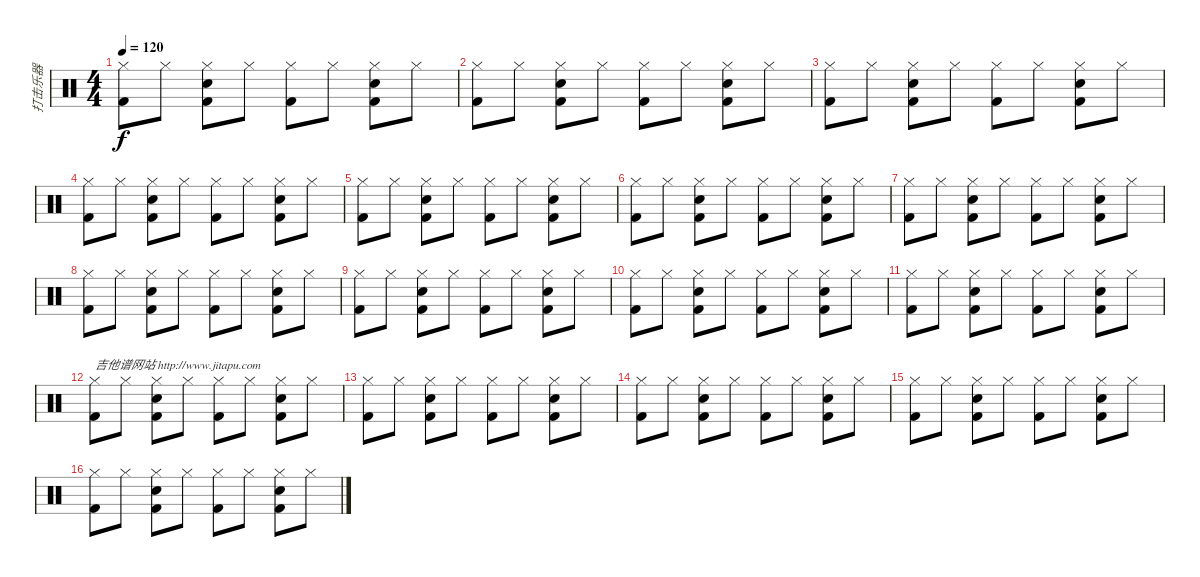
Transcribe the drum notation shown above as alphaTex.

\track ("打击乐器" "打击乐器") {instrument percussion}
\staff {score}
\articulation defaults
\ts (4 4)
\tempo 120
\clef neutral
\ks c
("Hi-Hat (closed)" "Kick (hit) 2").8{dy f} "Hi-Hat (closed)".8 ("Hi-Hat (closed)" "Snare (hit) 2" "Kick (hit) 2").8 "Hi-Hat (closed)".8 ("Hi-Hat (closed)" "Kick (hit) 2").8 "Hi-Hat (closed)".8 ("Hi-Hat (closed)" "Snare (hit) 2" "Kick (hit) 2").8 "Hi-Hat (closed)".8 |
("Hi-Hat (closed)" "Kick (hit) 2").8 "Hi-Hat (closed)".8 ("Hi-Hat (closed)" "Snare (hit) 2" "Kick (hit) 2").8 "Hi-Hat (closed)".8 ("Hi-Hat (closed)" "Kick (hit) 2").8 "Hi-Hat (closed)".8 ("Hi-Hat (closed)" "Snare (hit) 2" "Kick (hit) 2").8 "Hi-Hat (closed)".8 |
("Hi-Hat (closed)" "Kick (hit) 2").8 "Hi-Hat (closed)".8 ("Hi-Hat (closed)" "Snare (hit) 2" "Kick (hit) 2").8 "Hi-Hat (closed)".8 ("Hi-Hat (closed)" "Kick (hit) 2").8 "Hi-Hat (closed)".8 ("Hi-Hat (closed)" "Snare (hit) 2" "Kick (hit) 2").8 "Hi-Hat (closed)".8 |
("Hi-Hat (closed)" "Kick (hit) 2").8 "Hi-Hat (closed)".8 ("Hi-Hat (closed)" "Snare (hit) 2" "Kick (hit) 2").8 "Hi-Hat (closed)".8 ("Hi-Hat (closed)" "Kick (hit) 2").8 "Hi-Hat (closed)".8 ("Hi-Hat (closed)" "Snare (hit) 2" "Kick (hit) 2").8 "Hi-Hat (closed)".8 |
("Hi-Hat (closed)" "Kick (hit) 2").8 "Hi-Hat (closed)".8 ("Hi-Hat (closed)" "Snare (hit) 2" "Kick (hit) 2").8 "Hi-Hat (closed)".8 ("Hi-Hat (closed)" "Kick (hit) 2").8 "Hi-Hat (closed)".8 ("Hi-Hat (closed)" "Snare (hit) 2" "Kick (hit) 2").8 "Hi-Hat (closed)".8 |
("Hi-Hat (closed)" "Kick (hit) 2").8 "Hi-Hat (closed)".8 ("Hi-Hat (closed)" "Snare (hit) 2" "Kick (hit) 2").8 "Hi-Hat (closed)".8 ("Hi-Hat (closed)" "Kick (hit) 2").8 "Hi-Hat (closed)".8 ("Hi-Hat (closed)" "Snare (hit) 2" "Kick (hit) 2").8 "Hi-Hat (closed)".8 |
("Hi-Hat (closed)" "Kick (hit) 2").8 "Hi-Hat (closed)".8 ("Hi-Hat (closed)" "Snare (hit) 2" "Kick (hit) 2").8 "Hi-Hat (closed)".8 ("Hi-Hat (closed)" "Kick (hit) 2").8 "Hi-Hat (closed)".8 ("Hi-Hat (closed)" "Snare (hit) 2" "Kick (hit) 2").8 "Hi-Hat (closed)".8 |
("Hi-Hat (closed)" "Kick (hit) 2").8 "Hi-Hat (closed)".8 ("Hi-Hat (closed)" "Snare (hit) 2" "Kick (hit) 2").8 "Hi-Hat (closed)".8 ("Hi-Hat (closed)" "Kick (hit) 2").8 "Hi-Hat (closed)".8 ("Hi-Hat (closed)" "Snare (hit) 2" "Kick (hit) 2").8 "Hi-Hat (closed)".8 |
("Hi-Hat (closed)" "Kick (hit) 2").8 "Hi-Hat (closed)".8 ("Hi-Hat (closed)" "Snare (hit) 2" "Kick (hit) 2").8 "Hi-Hat (closed)".8 ("Hi-Hat (closed)" "Kick (hit) 2").8 "Hi-Hat (closed)".8 ("Hi-Hat (closed)" "Snare (hit) 2" "Kick (hit) 2").8 "Hi-Hat (closed)".8 |
("Hi-Hat (closed)" "Kick (hit) 2").8 "Hi-Hat (closed)".8 ("Hi-Hat (closed)" "Snare (hit) 2" "Kick (hit) 2").8 "Hi-Hat (closed)".8 ("Hi-Hat (closed)" "Kick (hit) 2").8 "Hi-Hat (closed)".8 ("Hi-Hat (closed)" "Snare (hit) 2" "Kick (hit) 2").8 "Hi-Hat (closed)".8 |
("Hi-Hat (closed)" "Kick (hit) 2").8 "Hi-Hat (closed)".8 ("Hi-Hat (closed)" "Snare (hit) 2" "Kick (hit) 2").8 "Hi-Hat (closed)".8 ("Hi-Hat (closed)" "Kick (hit) 2").8 "Hi-Hat (closed)".8 ("Hi-Hat (closed)" "Snare (hit) 2" "Kick (hit) 2").8 "Hi-Hat (closed)".8 |
("Hi-Hat (closed)" "Kick (hit) 2").8{txt "吉他谱网站 http://www.jitapu.com"} "Hi-Hat (closed)".8 ("Hi-Hat (closed)" "Snare (hit) 2" "Kick (hit) 2").8 "Hi-Hat (closed)".8 ("Hi-Hat (closed)" "Kick (hit) 2").8 "Hi-Hat (closed)".8 ("Hi-Hat (closed)" "Snare (hit) 2" "Kick (hit) 2").8 "Hi-Hat (closed)".8 |
("Hi-Hat (closed)" "Kick (hit) 2").8 "Hi-Hat (closed)".8 ("Hi-Hat (closed)" "Snare (hit) 2" "Kick (hit) 2").8 "Hi-Hat (closed)".8 ("Hi-Hat (closed)" "Kick (hit) 2").8 "Hi-Hat (closed)".8 ("Hi-Hat (closed)" "Snare (hit) 2" "Kick (hit) 2").8 "Hi-Hat (closed)".8 |
("Hi-Hat (closed)" "Kick (hit) 2").8 "Hi-Hat (closed)".8 ("Hi-Hat (closed)" "Snare (hit) 2" "Kick (hit) 2").8 "Hi-Hat (closed)".8 ("Hi-Hat (closed)" "Kick (hit) 2").8 "Hi-Hat (closed)".8 ("Hi-Hat (closed)" "Snare (hit) 2" "Kick (hit) 2").8 "Hi-Hat (closed)".8 |
("Hi-Hat (closed)" "Kick (hit) 2").8 "Hi-Hat (closed)".8 ("Hi-Hat (closed)" "Snare (hit) 2" "Kick (hit) 2").8 "Hi-Hat (closed)".8 ("Hi-Hat (closed)" "Kick (hit) 2").8 "Hi-Hat (closed)".8 ("Hi-Hat (closed)" "Snare (hit) 2" "Kick (hit) 2").8 "Hi-Hat (closed)".8 |
("Hi-Hat (closed)" "Kick (hit) 2").8 "Hi-Hat (closed)".8 ("Hi-Hat (closed)" "Snare (hit) 2" "Kick (hit) 2").8 "Hi-Hat (closed)".8 ("Hi-Hat (closed)" "Kick (hit) 2").8 "Hi-Hat (closed)".8 ("Hi-Hat (closed)" "Snare (hit) 2" "Kick (hit) 2").8 "Hi-Hat (closed)".8
